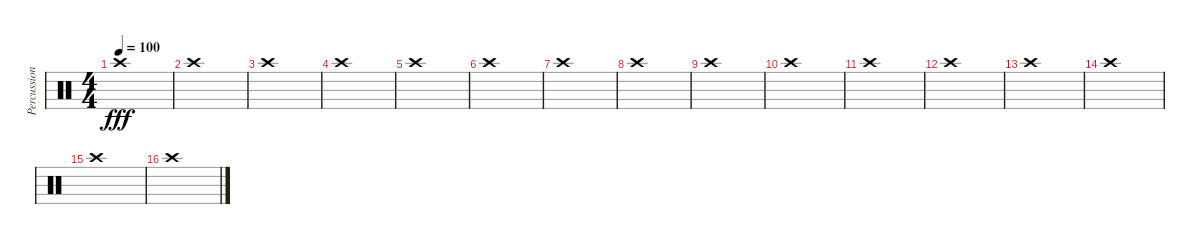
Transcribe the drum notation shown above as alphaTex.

\track ("Percussions" "Percussion") {instrument percussion}
\staff {score}
\articulation defaults
\ts (4 4)
\tempo 100
\clef neutral
\ks c "Crash high (hit)".1{dy fff}
|
"Crash high (hit)".1 |
"Crash high (hit)".1 |
"Crash high (hit)".1 |
"Crash high (hit)".1 |
"Crash high (hit)".1 |
"Crash high (hit)".1 |
"Crash high (hit)".1 |
"Crash high (hit)".1 |
"Crash high (hit)".1 |
"Crash high (hit)".1 |
"Crash high (hit)".1 |
"Crash high (hit)".1 |
"Crash high (hit)".1 |
"Crash high (hit)".1 |
"Crash high (hit)".1
